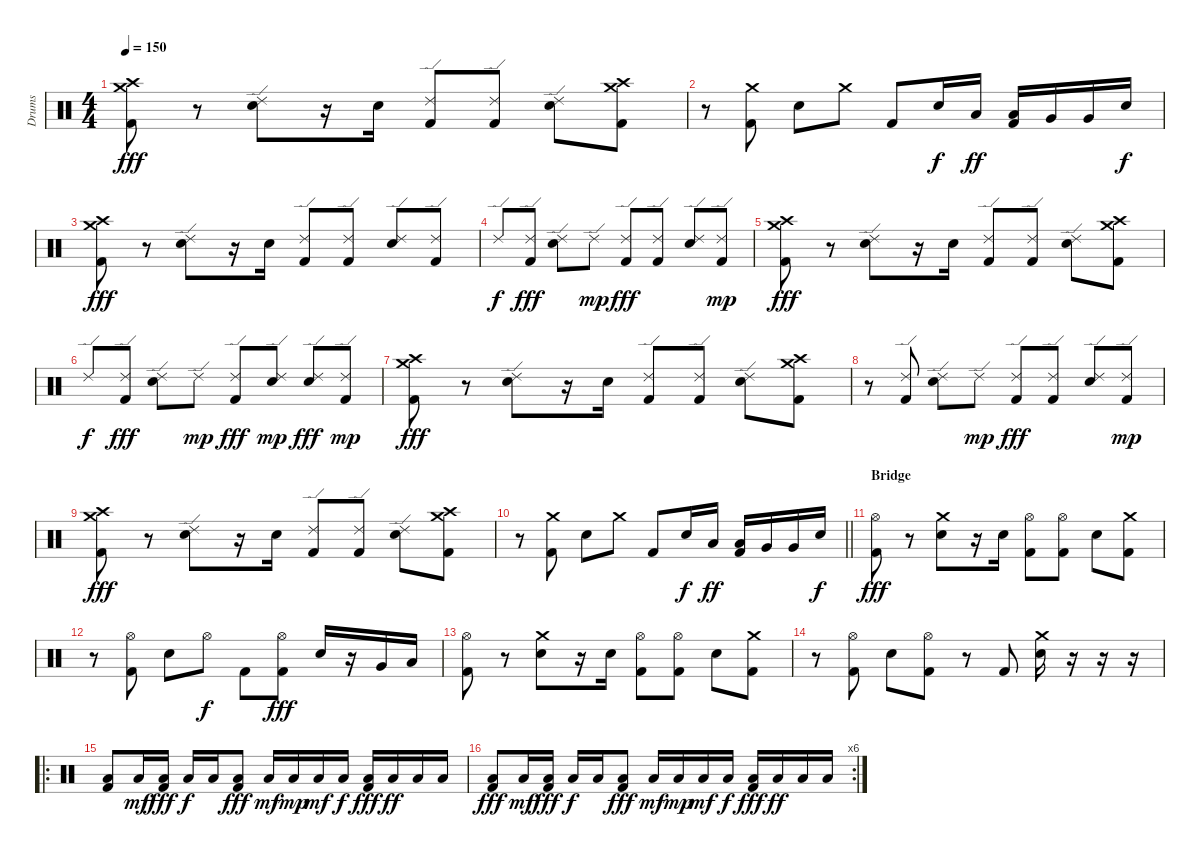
\track ("Drums" "Drums") {instrument percussion}
\staff {score}
\articulation defaults
\ts (4 4)
\tempo 150
\clef neutral
\ks c
("Crash high (hit)" "Crash medium (hit)" "Kick (hit) 2").8{dy fff} r.8 ("Ride (edge) 2" "Electric Snare (hit)").8 r.16 "Electric Snare (hit)".16 ("Ride (edge) 2" "Kick (hit) 2").8 ("Ride (edge) 2" "Kick (hit) 2").8 ("Ride (edge) 2" "Electric Snare (hit)").8 ("Crash high (hit)" "Crash medium (hit)" "Kick (hit) 2").8 |
r.8 ("Crash medium (hit)" "Kick (hit) 2").8 "Electric Snare (hit)".8 "Crash medium (hit)".8 "Kick (hit) 2".8 "Electric Snare (hit)".16{dy f} "Low Tom (hit)".16{dy ff} ("Low Tom (hit)" "Kick (hit) 2").16 "Very Low Tom (hit)".16 "Very Low Tom (hit)".16 "Electric Snare (hit)".16{dy f} |
("Crash high (hit)" "Crash medium (hit)" "Kick (hit) 2").8{dy fff} r.8 ("Ride (edge) 2" "Electric Snare (hit)").8 r.16 "Electric Snare (hit)".16 ("Ride (edge) 2" "Kick (hit) 2").8 ("Ride (edge) 2" "Kick (hit) 2").8 ("Ride (edge) 2" "Electric Snare (hit)").8 ("Ride (edge) 2" "Kick (hit) 2").8 |
"Ride (edge) 2".8{dy f} ("Ride (edge) 2" "Kick (hit) 2").8{dy fff} ("Ride (edge) 2" "Electric Snare (hit)").8 "Ride (edge) 2".8{dy mp} ("Ride (edge) 2" "Kick (hit) 2").8{dy fff} ("Ride (edge) 2" "Kick (hit) 2").8 ("Ride (edge) 2" "Electric Snare (hit)").8 ("Ride (edge) 2" "Kick (hit) 2").8{dy mp} |
("Crash medium (hit)" "Crash high (hit)" "Kick (hit) 2").8{dy fff} r.8 ("Ride (edge) 2" "Electric Snare (hit)").8 r.16 "Electric Snare (hit)".16 ("Ride (edge) 2" "Kick (hit) 2").8 ("Ride (edge) 2" "Kick (hit) 2").8 ("Ride (edge) 2" "Electric Snare (hit)").8 ("Crash medium (hit)" "Crash high (hit)" "Kick (hit) 2").8 |
"Ride (edge) 2".8{dy f} ("Ride (edge) 2" "Kick (hit) 2").8{dy fff} ("Ride (edge) 2" "Electric Snare (hit)").8 "Ride (edge) 2".8{dy mp} ("Ride (edge) 2" "Kick (hit) 2").8{dy fff} ("Ride (edge) 2" "Electric Snare (hit)").8{dy mp} ("Ride (edge) 2" "Electric Snare (hit)").8{dy fff} ("Ride (edge) 2" "Kick (hit) 2").8{dy mp} |
("Crash high (hit)" "Crash medium (hit)" "Kick (hit) 2").8{dy fff} r.8 ("Ride (edge) 2" "Electric Snare (hit)").8 r.16 "Electric Snare (hit)".16 ("Ride (edge) 2" "Kick (hit) 2").8 ("Ride (edge) 2" "Kick (hit) 2").8 ("Ride (edge) 2" "Electric Snare (hit)").8 ("Crash medium (hit)" "Crash high (hit)" "Kick (hit) 2").8 |
r.8 ("Ride (edge) 2" "Kick (hit) 2").8 ("Ride (edge) 2" "Electric Snare (hit)").8 "Ride (edge) 2".8{dy mp} ("Ride (edge) 2" "Kick (hit) 2").8{dy fff} ("Ride (edge) 2" "Kick (hit) 2").8 ("Ride (edge) 2" "Electric Snare (hit)").8 ("Ride (edge) 2" "Kick (hit) 2").8{dy mp} |
("Crash high (hit)" "Crash medium (hit)" "Kick (hit) 2").8{dy fff} r.8 ("Ride (edge) 2" "Electric Snare (hit)").8 r.16 "Electric Snare (hit)".16 ("Ride (edge) 2" "Kick (hit) 2").8 ("Ride (edge) 2" "Kick (hit) 2").8 ("Ride (edge) 2" "Electric Snare (hit)").8 ("Crash high (hit)" "Crash medium (hit)" "Kick (hit) 2").8 |
\barLineRight lightlight
r.8 ("Crash medium (hit)" "Kick (hit) 2").8 "Electric Snare (hit)".8 "Crash medium (hit)".8 "Kick (hit) 2".8 "Electric Snare (hit)".16{dy f} "Low Tom (hit)".16{dy ff} ("Low Tom (hit)" "Kick (hit) 2").16 "Very Low Tom (hit)".16 "Very Low Tom (hit)".16 "Electric Snare (hit)".16{dy f} |
\section ("" "Bridge")
("Hi-Hat (open)" "Kick (hit) 2").8{dy fff} r.8 ("Crash medium (hit)" "Electric Snare (hit)").8 r.16 "Electric Snare (hit)".16 ("Hi-Hat (open)" "Kick (hit) 2").8 ("Hi-Hat (open)" "Kick (hit) 2").8 "Electric Snare (hit)".8 ("Crash medium (hit)" "Kick (hit) 2").8 |
r.8 ("Hi-Hat (open)" "Kick (hit) 2").8 "Electric Snare (hit)".8 "Hi-Hat (open)".8{dy f} "Kick (hit) 2".8 ("Hi-Hat (open)" "Kick (hit) 2").8{dy fff} "Electric Snare (hit)".16 r.16 "Very Low Tom (hit)".16 "Low Floor Tom (hit)".16 |
("Hi-Hat (open)" "Kick (hit) 2").8 r.8 ("Crash medium (hit)" "Electric Snare (hit)").8 r.16 "Electric Snare (hit)".16 ("Hi-Hat (open)" "Kick (hit) 2").8 ("Hi-Hat (open)" "Kick (hit) 2").8 "Electric Snare (hit)".8 ("Crash medium (hit)" "Kick (hit) 2").8 |
r.8 ("Hi-Hat (open)" "Kick (hit) 2").8 "Electric Snare (hit)".8 ("Hi-Hat (open)" "Kick (hit) 2").8 r.8 "Kick (hit) 2".8 ("Crash medium (hit)" "Electric Snare (hit)").16 r.16 r.16 r.16 |
\ro
("Low Floor Tom (hit)" "Kick (hit) 2").8 "Low Floor Tom (hit)".16{dy mf} ("Low Floor Tom (hit)" "Kick (hit) 2").16{dy fff} "Low Floor Tom (hit)".16{dy f} "Low Floor Tom (hit)".16 ("Low Floor Tom (hit)" "Kick (hit) 2").8{dy fff} "Low Floor Tom (hit)".16{dy mf} "Low Floor Tom (hit)".16{dy mp} "Low Floor Tom (hit)".16{dy mf} "Low Floor Tom (hit)".16{dy f} ("Low Floor Tom (hit)" "Kick (hit) 2").16{dy fff} "Low Floor Tom (hit)".16{dy ff} "Low Floor Tom (hit)".16 "Low Floor Tom (hit)".16 |
\rc 6
("Low Floor Tom (hit)" "Kick (hit) 2").8{dy fff} "Low Floor Tom (hit)".16{dy mf} ("Low Floor Tom (hit)" "Kick (hit) 2").16{dy fff} "Low Floor Tom (hit)".16{dy f} "Low Floor Tom (hit)".16 ("Low Floor Tom (hit)" "Kick (hit) 2").8{dy fff} "Low Floor Tom (hit)".16{dy mf} "Low Floor Tom (hit)".16{dy mp} "Low Floor Tom (hit)".16{dy mf} "Low Floor Tom (hit)".16{dy f} ("Low Floor Tom (hit)" "Kick (hit) 2").16{dy fff} "Low Floor Tom (hit)".16{dy ff} "Low Floor Tom (hit)".16 "Low Floor Tom (hit)".16
